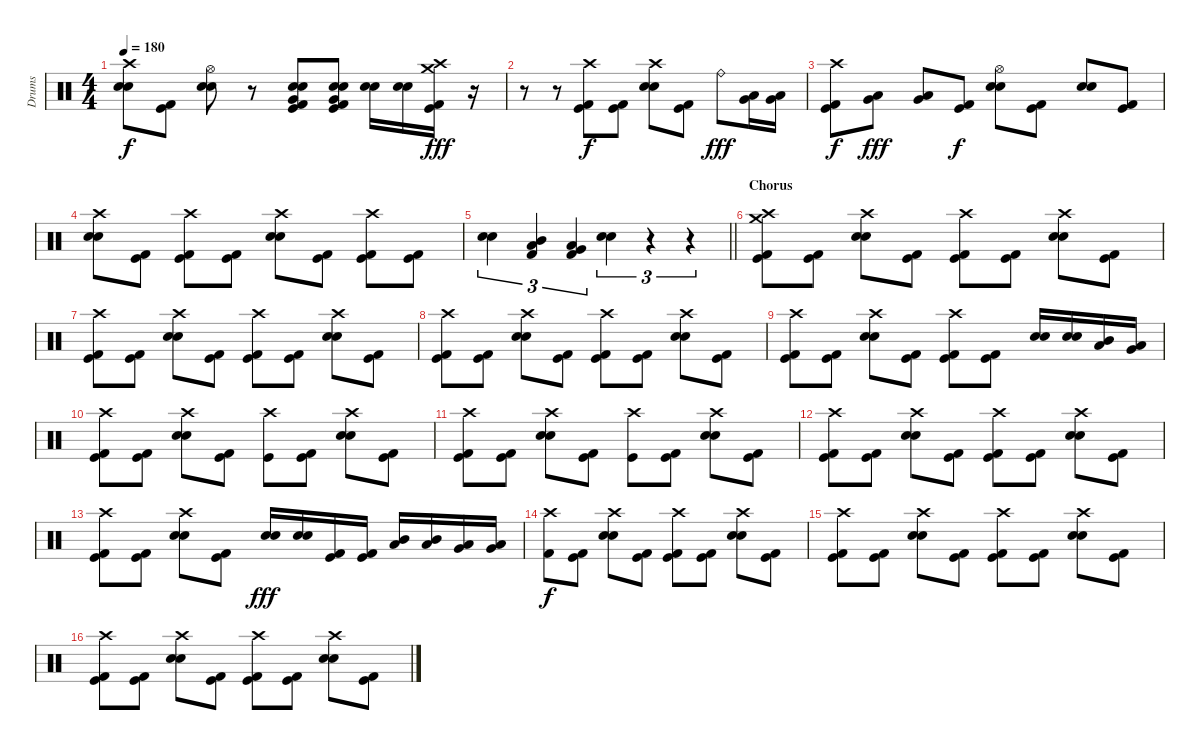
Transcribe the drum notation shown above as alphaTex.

\track ("Drums" "Drums") {instrument percussion}
\staff {score}
\articulation defaults
\ts (4 4)
\tempo 180
\clef neutral
\ks c
("Electric Snare (hit)" "Snare (hit) 2" "Crash high (hit)").8{dy f} ("Kick (hit)" "Kick (hit) 2").8 ("Electric Snare (hit)" "Snare (hit) 2" "Hi-Hat (open)").8 r.8 ("Electric Snare (hit)" "Snare (hit) 2" "Very Low Tom (hit)" "Kick (hit)" "Kick (hit) 2").8 ("Electric Snare (hit)" "Snare (hit) 2" "Very Low Tom (hit)" "Kick (hit)" "Kick (hit) 2").8 ("Electric Snare (hit)" "Snare (hit) 2").16 ("Electric Snare (hit)" "Snare (hit) 2").16 ("Crash medium (hit)" "Kick (hit)" "Crash high (hit)" "Kick (hit) 2").16{dy fff} r.16 |
r.8 r.8 ("Crash high (hit)" "Kick (hit)" "Kick (hit) 2").8{dy f} ("Kick (hit)" "Kick (hit) 2").8 ("Electric Snare (hit)" "Crash high (hit)" "Snare (hit) 2").8 ("Kick (hit)" "Kick (hit) 2").8 "Ride (bell)".8{dy fff} ("Very Low Tom (hit)" "Low Tom (hit)").16 ("Very Low Tom (hit)" "Low Tom (hit)").16 |
("Kick (hit)" "Crash high (hit)" "Kick (hit) 2").8{dy f} ("Very Low Tom (hit)" "Low Tom (hit)").8{dy fff} ("Low Floor Tom (hit)" "Very Low Tom (hit)").8 ("Kick (hit)" "Kick (hit) 2").8{dy f} ("Electric Snare (hit)" "Snare (hit) 2" "Hi-Hat (open)").8 ("Kick (hit)" "Kick (hit) 2").8 ("Electric Snare (hit)" "Snare (hit) 2").8 ("Kick (hit)" "Kick (hit) 2").8 |
("Electric Snare (hit)" "Snare (hit) 2" "Crash high (hit)").8 ("Kick (hit)" "Kick (hit) 2").8 ("Kick (hit)" "Crash high (hit)" "Kick (hit) 2").8 ("Kick (hit)" "Kick (hit) 2").8 ("Electric Snare (hit)" "Snare (hit) 2" "Crash high (hit)").8 ("Kick (hit)" "Kick (hit) 2").8 ("Kick (hit)" "Crash high (hit)" "Kick (hit) 2").8 ("Kick (hit)" "Kick (hit) 2").8 |
\barLineRight lightlight
("Electric Snare (hit)" "Snare (hit) 2").4{tu (3 2)} ("Mid Tom (hit)" "Low Tom (hit)" "Kick (hit) 2").4{tu (3 2)} ("Low Tom (hit)" "Very Low Tom (hit)" "Kick (hit) 2").4{tu (3 2)} ("Electric Snare (hit)" "Snare (hit) 2").4{tu (3 2)} r.4{tu (3 2)} r.4{tu (3 2)} |
\section ("" "Chorus")
("Crash medium (hit)" "Kick (hit)" "Crash high (hit)" "Kick (hit) 2").8 ("Kick (hit)" "Kick (hit) 2").8 ("Electric Snare (hit)" "Crash high (hit)" "Snare (hit) 2").8 ("Kick (hit)" "Kick (hit) 2").8 ("Kick (hit)" "Crash high (hit)" "Kick (hit) 2").8 ("Kick (hit)" "Kick (hit) 2").8 ("Electric Snare (hit)" "Snare (hit) 2" "Crash high (hit)").8 ("Kick (hit)" "Kick (hit) 2").8 |
("Kick (hit)" "Crash high (hit)" "Kick (hit) 2").8 ("Kick (hit)" "Kick (hit) 2").8 ("Electric Snare (hit)" "Snare (hit) 2" "Crash high (hit)").8 ("Kick (hit)" "Kick (hit) 2").8 ("Kick (hit)" "Crash high (hit)" "Kick (hit) 2").8 ("Kick (hit)" "Kick (hit) 2").8 ("Electric Snare (hit)" "Snare (hit) 2" "Crash high (hit)").8 ("Kick (hit)" "Kick (hit) 2").8 |
("Kick (hit)" "Crash high (hit)" "Kick (hit) 2").8 ("Kick (hit)" "Kick (hit) 2").8 ("Electric Snare (hit)" "Snare (hit) 2" "Crash high (hit)").8 ("Kick (hit)" "Kick (hit) 2").8 ("Kick (hit)" "Crash high (hit)" "Kick (hit) 2").8 ("Kick (hit)" "Kick (hit) 2").8 ("Electric Snare (hit)" "Snare (hit) 2" "Crash high (hit)").8 ("Kick (hit)" "Kick (hit) 2").8 |
("Kick (hit)" "Crash high (hit)" "Kick (hit) 2").8 ("Kick (hit)" "Kick (hit) 2").8 ("Electric Snare (hit)" "Snare (hit) 2" "Crash high (hit)").8 ("Kick (hit)" "Kick (hit) 2").8 ("Kick (hit)" "Crash high (hit)" "Kick (hit) 2").8 ("Kick (hit)" "Kick (hit) 2").8 ("Electric Snare (hit)" "Snare (hit) 2").16 ("Electric Snare (hit)" "Snare (hit) 2").16 ("Mid Tom (hit)" "Low Tom (hit)").16 ("Low Tom (hit)" "Very Low Tom (hit)").16 |
("Kick (hit)" "Crash high (hit)" "Kick (hit) 2").8 ("Kick (hit)" "Kick (hit) 2").8 ("Electric Snare (hit)" "Snare (hit) 2" "Crash high (hit)").8 ("Kick (hit)" "Kick (hit) 2").8 ("Kick (hit)" "Crash high (hit)").8 ("Kick (hit)" "Kick (hit) 2").8 ("Electric Snare (hit)" "Snare (hit) 2" "Crash high (hit)").8 ("Kick (hit)" "Kick (hit) 2").8 |
("Kick (hit)" "Crash high (hit)" "Kick (hit) 2").8 ("Kick (hit)" "Kick (hit) 2").8 ("Electric Snare (hit)" "Snare (hit) 2" "Crash high (hit)").8 ("Kick (hit)" "Kick (hit) 2").8 ("Kick (hit)" "Crash high (hit)").8 ("Kick (hit)" "Kick (hit) 2").8 ("Electric Snare (hit)" "Snare (hit) 2" "Crash high (hit)").8 ("Kick (hit)" "Kick (hit) 2").8 |
("Kick (hit)" "Crash high (hit)" "Kick (hit) 2").8 ("Kick (hit)" "Kick (hit) 2").8 ("Electric Snare (hit)" "Snare (hit) 2" "Crash high (hit)").8 ("Kick (hit)" "Kick (hit) 2").8 ("Kick (hit)" "Crash high (hit)" "Kick (hit) 2").8 ("Kick (hit)" "Kick (hit) 2").8 ("Electric Snare (hit)" "Snare (hit) 2" "Crash high (hit)").8 ("Kick (hit)" "Kick (hit) 2").8 |
("Kick (hit)" "Crash high (hit)" "Kick (hit) 2").8 ("Kick (hit)" "Kick (hit) 2").8 ("Electric Snare (hit)" "Snare (hit) 2" "Crash high (hit)").8 ("Kick (hit)" "Kick (hit) 2").8 ("Snare (hit) 2" "Electric Snare (hit)").16{dy fff} ("Snare (hit) 2" "Electric Snare (hit)").16 ("Kick (hit) 2" "Kick (hit)").16 ("Kick (hit) 2" "Kick (hit)").16 ("Low Tom (hit)" "Mid Tom (hit)").16 ("Low Tom (hit)" "Mid Tom (hit)").16 ("Very Low Tom (hit)" "Low Tom (hit)").16 ("Very Low Tom (hit)" "Low Tom (hit)").16 |
("Crash high (hit)" "Kick (hit) 2").8{dy f} ("Kick (hit)" "Kick (hit) 2").8 ("Electric Snare (hit)" "Snare (hit) 2" "Crash high (hit)").8 ("Kick (hit)" "Kick (hit) 2").8 ("Kick (hit)" "Crash high (hit)" "Kick (hit) 2").8 ("Kick (hit)" "Kick (hit) 2").8 ("Electric Snare (hit)" "Snare (hit) 2" "Crash high (hit)").8 ("Kick (hit)" "Kick (hit) 2").8 |
("Kick (hit)" "Crash high (hit)" "Kick (hit) 2").8 ("Kick (hit)" "Kick (hit) 2").8 ("Electric Snare (hit)" "Snare (hit) 2" "Crash high (hit)").8 ("Kick (hit)" "Kick (hit) 2").8 ("Kick (hit)" "Crash high (hit)" "Kick (hit) 2").8 ("Kick (hit)" "Kick (hit) 2").8 ("Electric Snare (hit)" "Snare (hit) 2" "Crash high (hit)").8 ("Kick (hit)" "Kick (hit) 2").8 |
("Kick (hit)" "Crash high (hit)" "Kick (hit) 2").8 ("Kick (hit)" "Kick (hit) 2").8 ("Electric Snare (hit)" "Snare (hit) 2" "Crash high (hit)").8 ("Kick (hit)" "Kick (hit) 2").8 ("Kick (hit)" "Crash high (hit)" "Kick (hit) 2").8 ("Kick (hit)" "Kick (hit) 2").8 ("Electric Snare (hit)" "Snare (hit) 2" "Crash high (hit)").8 ("Kick (hit)" "Kick (hit) 2").8
